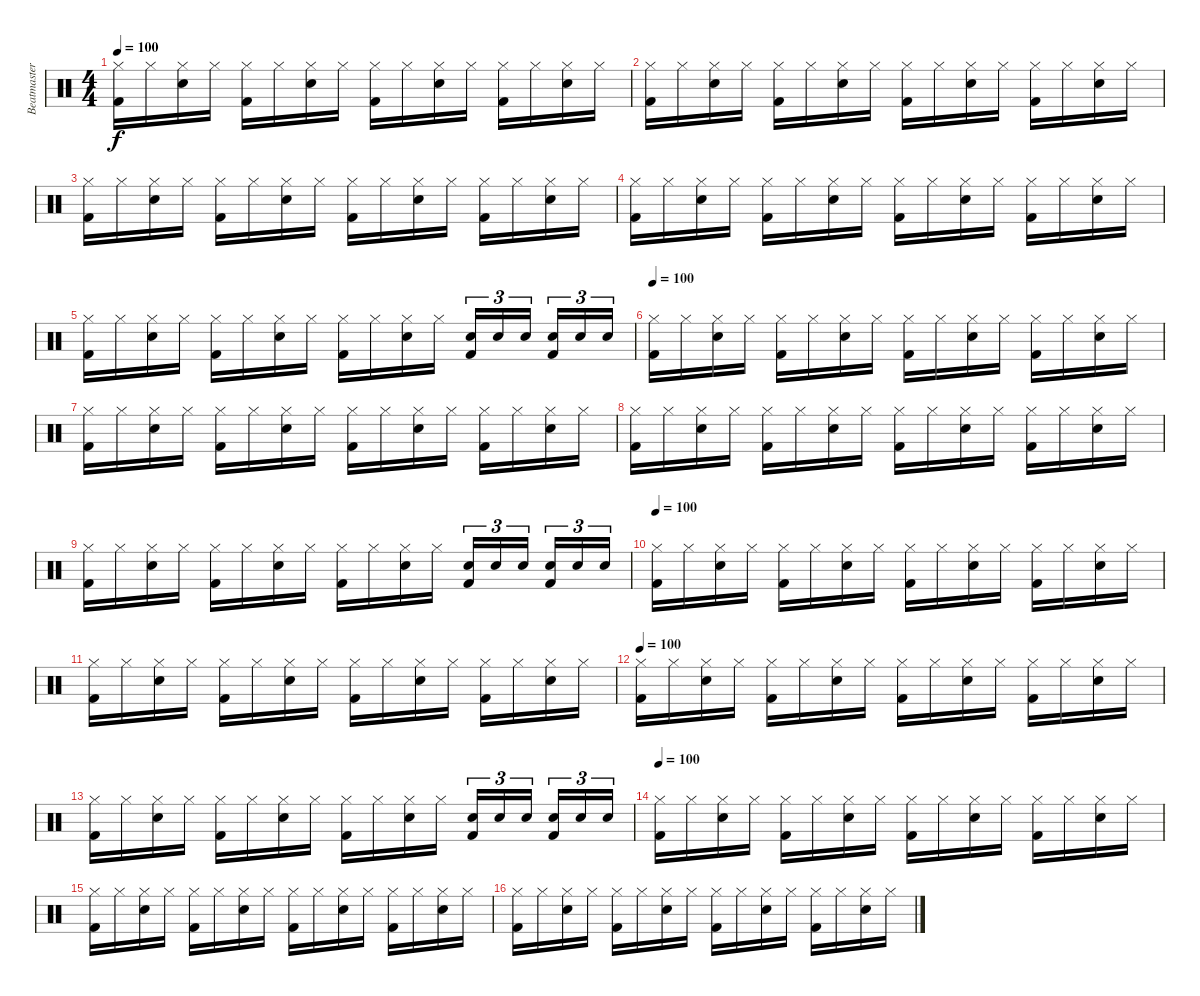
\track ("Beatmaster V." "Beatmaster") {instrument percussion}
\staff {score}
\articulation defaults
\ts (4 4)
\tempo 100
\clef neutral
\ks c
("Hi-Hat (closed)" "Kick (hit) 2").16{dy f} "Hi-Hat (closed)".16 ("Hi-Hat (closed)" "Snare (hit) 2").16 "Hi-Hat (closed)".16 ("Hi-Hat (closed)" "Kick (hit) 2").16 "Hi-Hat (closed)".16 ("Hi-Hat (closed)" "Snare (hit) 2").16 "Hi-Hat (closed)".16 ("Hi-Hat (closed)" "Kick (hit) 2").16 "Hi-Hat (closed)".16 ("Hi-Hat (closed)" "Snare (hit) 2").16 "Hi-Hat (closed)".16 ("Hi-Hat (closed)" "Kick (hit) 2").16 "Hi-Hat (closed)".16 ("Hi-Hat (closed)" "Snare (hit) 2").16 "Hi-Hat (closed)".16 |
("Hi-Hat (closed)" "Kick (hit) 2").16 "Hi-Hat (closed)".16 ("Hi-Hat (closed)" "Snare (hit) 2").16 "Hi-Hat (closed)".16 ("Hi-Hat (closed)" "Kick (hit) 2").16 "Hi-Hat (closed)".16 ("Hi-Hat (closed)" "Snare (hit) 2").16 "Hi-Hat (closed)".16 ("Hi-Hat (closed)" "Kick (hit) 2").16 "Hi-Hat (closed)".16 ("Hi-Hat (closed)" "Snare (hit) 2").16 "Hi-Hat (closed)".16 ("Hi-Hat (closed)" "Kick (hit) 2").16 "Hi-Hat (closed)".16 ("Hi-Hat (closed)" "Snare (hit) 2").16 "Hi-Hat (closed)".16 |
("Hi-Hat (closed)" "Kick (hit) 2").16 "Hi-Hat (closed)".16 ("Hi-Hat (closed)" "Snare (hit) 2").16 "Hi-Hat (closed)".16 ("Hi-Hat (closed)" "Kick (hit) 2").16 "Hi-Hat (closed)".16 ("Hi-Hat (closed)" "Snare (hit) 2").16 "Hi-Hat (closed)".16 ("Hi-Hat (closed)" "Kick (hit) 2").16 "Hi-Hat (closed)".16 ("Hi-Hat (closed)" "Snare (hit) 2").16 "Hi-Hat (closed)".16 ("Hi-Hat (closed)" "Kick (hit) 2").16 "Hi-Hat (closed)".16 ("Hi-Hat (closed)" "Snare (hit) 2").16 "Hi-Hat (closed)".16 |
("Hi-Hat (closed)" "Kick (hit) 2").16 "Hi-Hat (closed)".16 ("Hi-Hat (closed)" "Snare (hit) 2").16 "Hi-Hat (closed)".16 ("Hi-Hat (closed)" "Kick (hit) 2").16 "Hi-Hat (closed)".16 ("Hi-Hat (closed)" "Snare (hit) 2").16 "Hi-Hat (closed)".16 ("Hi-Hat (closed)" "Kick (hit) 2").16 "Hi-Hat (closed)".16 ("Hi-Hat (closed)" "Snare (hit) 2").16 "Hi-Hat (closed)".16 ("Hi-Hat (closed)" "Kick (hit) 2").16 "Hi-Hat (closed)".16 ("Hi-Hat (closed)" "Snare (hit) 2").16 "Hi-Hat (closed)".16 |
("Hi-Hat (closed)" "Kick (hit) 2").16 "Hi-Hat (closed)".16 ("Hi-Hat (closed)" "Snare (hit) 2").16 "Hi-Hat (closed)".16 ("Hi-Hat (closed)" "Kick (hit) 2").16 "Hi-Hat (closed)".16 ("Hi-Hat (closed)" "Snare (hit) 2").16 "Hi-Hat (closed)".16 ("Hi-Hat (closed)" "Kick (hit) 2").16 "Hi-Hat (closed)".16 ("Hi-Hat (closed)" "Snare (hit) 2").16 "Hi-Hat (closed)".16 ("Snare (hit) 2" "Kick (hit) 2").16{tu (3 2)} "Snare (hit) 2".16{tu (3 2)} "Snare (hit) 2".16{tu (3 2)} ("Snare (hit) 2" "Kick (hit) 2").16{tu (3 2)} "Snare (hit) 2".16{tu (3 2)} "Snare (hit) 2".16{tu (3 2)} |
\tempo 100
("Hi-Hat (closed)" "Kick (hit) 2").16 "Hi-Hat (closed)".16 ("Hi-Hat (closed)" "Snare (hit) 2").16 "Hi-Hat (closed)".16 ("Hi-Hat (closed)" "Kick (hit) 2").16 "Hi-Hat (closed)".16 ("Hi-Hat (closed)" "Snare (hit) 2").16 "Hi-Hat (closed)".16 ("Hi-Hat (closed)" "Kick (hit) 2").16 "Hi-Hat (closed)".16 ("Hi-Hat (closed)" "Snare (hit) 2").16 "Hi-Hat (closed)".16 ("Hi-Hat (closed)" "Kick (hit) 2").16 "Hi-Hat (closed)".16 ("Hi-Hat (closed)" "Snare (hit) 2").16 "Hi-Hat (closed)".16 |
("Hi-Hat (closed)" "Kick (hit) 2").16 "Hi-Hat (closed)".16 ("Hi-Hat (closed)" "Snare (hit) 2").16 "Hi-Hat (closed)".16 ("Hi-Hat (closed)" "Kick (hit) 2").16 "Hi-Hat (closed)".16 ("Hi-Hat (closed)" "Snare (hit) 2").16 "Hi-Hat (closed)".16 ("Hi-Hat (closed)" "Kick (hit) 2").16 "Hi-Hat (closed)".16 ("Hi-Hat (closed)" "Snare (hit) 2").16 "Hi-Hat (closed)".16 ("Hi-Hat (closed)" "Kick (hit) 2").16 "Hi-Hat (closed)".16 ("Hi-Hat (closed)" "Snare (hit) 2").16 "Hi-Hat (closed)".16 |
("Hi-Hat (closed)" "Kick (hit) 2").16 "Hi-Hat (closed)".16 ("Hi-Hat (closed)" "Snare (hit) 2").16 "Hi-Hat (closed)".16 ("Hi-Hat (closed)" "Kick (hit) 2").16 "Hi-Hat (closed)".16 ("Hi-Hat (closed)" "Snare (hit) 2").16 "Hi-Hat (closed)".16 ("Hi-Hat (closed)" "Kick (hit) 2").16 "Hi-Hat (closed)".16 ("Hi-Hat (closed)" "Snare (hit) 2").16 "Hi-Hat (closed)".16 ("Hi-Hat (closed)" "Kick (hit) 2").16 "Hi-Hat (closed)".16 ("Hi-Hat (closed)" "Snare (hit) 2").16 "Hi-Hat (closed)".16 |
("Hi-Hat (closed)" "Kick (hit) 2").16 "Hi-Hat (closed)".16 ("Hi-Hat (closed)" "Snare (hit) 2").16 "Hi-Hat (closed)".16 ("Hi-Hat (closed)" "Kick (hit) 2").16 "Hi-Hat (closed)".16 ("Hi-Hat (closed)" "Snare (hit) 2").16 "Hi-Hat (closed)".16 ("Hi-Hat (closed)" "Kick (hit) 2").16 "Hi-Hat (closed)".16 ("Hi-Hat (closed)" "Snare (hit) 2").16 "Hi-Hat (closed)".16 ("Snare (hit) 2" "Kick (hit) 2").16{tu (3 2)} "Snare (hit) 2".16{tu (3 2)} "Snare (hit) 2".16{tu (3 2)} ("Snare (hit) 2" "Kick (hit) 2").16{tu (3 2)} "Snare (hit) 2".16{tu (3 2)} "Snare (hit) 2".16{tu (3 2)} |
\tempo 100
("Hi-Hat (closed)" "Kick (hit) 2").16 "Hi-Hat (closed)".16 ("Hi-Hat (closed)" "Snare (hit) 2").16 "Hi-Hat (closed)".16 ("Hi-Hat (closed)" "Kick (hit) 2").16 "Hi-Hat (closed)".16 ("Hi-Hat (closed)" "Snare (hit) 2").16 "Hi-Hat (closed)".16 ("Hi-Hat (closed)" "Kick (hit) 2").16 "Hi-Hat (closed)".16 ("Hi-Hat (closed)" "Snare (hit) 2").16 "Hi-Hat (closed)".16 ("Hi-Hat (closed)" "Kick (hit) 2").16 "Hi-Hat (closed)".16 ("Hi-Hat (closed)" "Snare (hit) 2").16 "Hi-Hat (closed)".16 |
("Hi-Hat (closed)" "Kick (hit) 2").16 "Hi-Hat (closed)".16 ("Hi-Hat (closed)" "Snare (hit) 2").16 "Hi-Hat (closed)".16 ("Hi-Hat (closed)" "Kick (hit) 2").16 "Hi-Hat (closed)".16 ("Hi-Hat (closed)" "Snare (hit) 2").16 "Hi-Hat (closed)".16 ("Hi-Hat (closed)" "Kick (hit) 2").16 "Hi-Hat (closed)".16 ("Hi-Hat (closed)" "Snare (hit) 2").16 "Hi-Hat (closed)".16 ("Hi-Hat (closed)" "Kick (hit) 2").16 "Hi-Hat (closed)".16 ("Hi-Hat (closed)" "Snare (hit) 2").16 "Hi-Hat (closed)".16 |
\tempo 100
("Hi-Hat (closed)" "Kick (hit) 2").16 "Hi-Hat (closed)".16 ("Hi-Hat (closed)" "Snare (hit) 2").16 "Hi-Hat (closed)".16 ("Hi-Hat (closed)" "Kick (hit) 2").16 "Hi-Hat (closed)".16 ("Hi-Hat (closed)" "Snare (hit) 2").16 "Hi-Hat (closed)".16 ("Hi-Hat (closed)" "Kick (hit) 2").16 "Hi-Hat (closed)".16 ("Hi-Hat (closed)" "Snare (hit) 2").16 "Hi-Hat (closed)".16 ("Hi-Hat (closed)" "Kick (hit) 2").16 "Hi-Hat (closed)".16 ("Hi-Hat (closed)" "Snare (hit) 2").16 "Hi-Hat (closed)".16 |
("Hi-Hat (closed)" "Kick (hit) 2").16 "Hi-Hat (closed)".16 ("Hi-Hat (closed)" "Snare (hit) 2").16 "Hi-Hat (closed)".16 ("Hi-Hat (closed)" "Kick (hit) 2").16 "Hi-Hat (closed)".16 ("Hi-Hat (closed)" "Snare (hit) 2").16 "Hi-Hat (closed)".16 ("Hi-Hat (closed)" "Kick (hit) 2").16 "Hi-Hat (closed)".16 ("Hi-Hat (closed)" "Snare (hit) 2").16 "Hi-Hat (closed)".16 ("Snare (hit) 2" "Kick (hit) 2").16{tu (3 2)} "Snare (hit) 2".16{tu (3 2)} "Snare (hit) 2".16{tu (3 2)} ("Snare (hit) 2" "Kick (hit) 2").16{tu (3 2)} "Snare (hit) 2".16{tu (3 2)} "Snare (hit) 2".16{tu (3 2)} |
\tempo 100
("Hi-Hat (closed)" "Kick (hit) 2").16 "Hi-Hat (closed)".16 ("Hi-Hat (closed)" "Snare (hit) 2").16 "Hi-Hat (closed)".16 ("Hi-Hat (closed)" "Kick (hit) 2").16 "Hi-Hat (closed)".16 ("Hi-Hat (closed)" "Snare (hit) 2").16 "Hi-Hat (closed)".16 ("Hi-Hat (closed)" "Kick (hit) 2").16 "Hi-Hat (closed)".16 ("Hi-Hat (closed)" "Snare (hit) 2").16 "Hi-Hat (closed)".16 ("Hi-Hat (closed)" "Kick (hit) 2").16 "Hi-Hat (closed)".16 ("Hi-Hat (closed)" "Snare (hit) 2").16 "Hi-Hat (closed)".16 |
("Hi-Hat (closed)" "Kick (hit) 2").16 "Hi-Hat (closed)".16 ("Hi-Hat (closed)" "Snare (hit) 2").16 "Hi-Hat (closed)".16 ("Hi-Hat (closed)" "Kick (hit) 2").16 "Hi-Hat (closed)".16 ("Hi-Hat (closed)" "Snare (hit) 2").16 "Hi-Hat (closed)".16 ("Hi-Hat (closed)" "Kick (hit) 2").16 "Hi-Hat (closed)".16 ("Hi-Hat (closed)" "Snare (hit) 2").16 "Hi-Hat (closed)".16 ("Hi-Hat (closed)" "Kick (hit) 2").16 "Hi-Hat (closed)".16 ("Hi-Hat (closed)" "Snare (hit) 2").16 "Hi-Hat (closed)".16 |
("Hi-Hat (closed)" "Kick (hit) 2").16 "Hi-Hat (closed)".16 ("Hi-Hat (closed)" "Snare (hit) 2").16 "Hi-Hat (closed)".16 ("Hi-Hat (closed)" "Kick (hit) 2").16 "Hi-Hat (closed)".16 ("Hi-Hat (closed)" "Snare (hit) 2").16 "Hi-Hat (closed)".16 ("Hi-Hat (closed)" "Kick (hit) 2").16 "Hi-Hat (closed)".16 ("Hi-Hat (closed)" "Snare (hit) 2").16 "Hi-Hat (closed)".16 ("Hi-Hat (closed)" "Kick (hit) 2").16 "Hi-Hat (closed)".16 ("Hi-Hat (closed)" "Snare (hit) 2").16 "Hi-Hat (closed)".16
